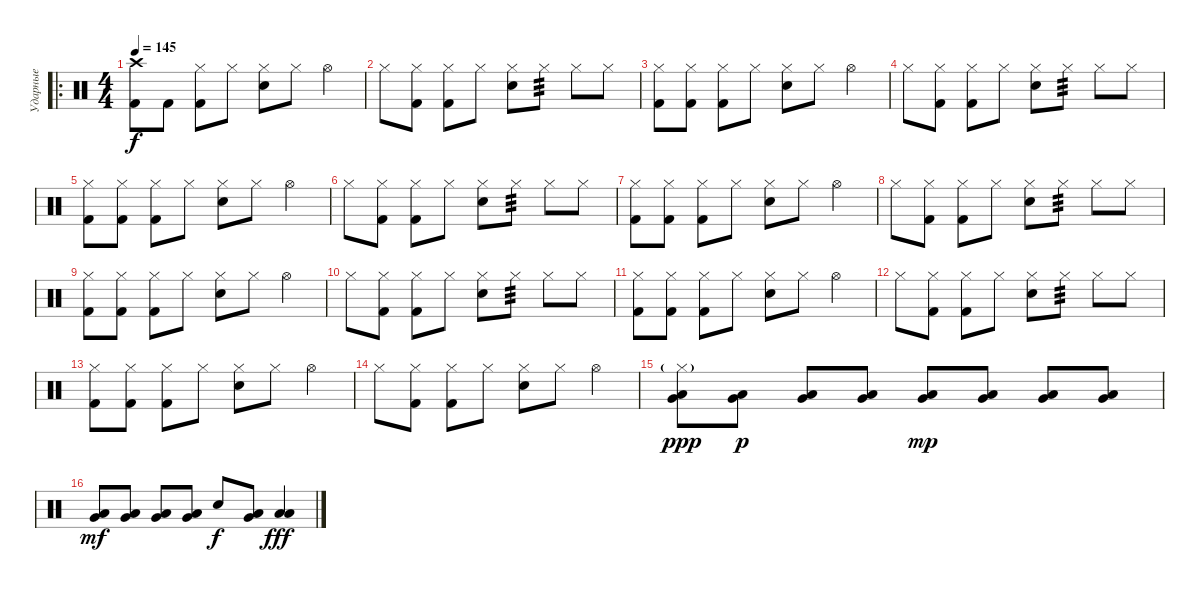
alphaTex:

\track ("Ударные" "Ударные") {instrument percussion}
\staff {score}
\articulation defaults
\ro
\ts (4 4)
\tempo 145
\clef neutral
\ks c
("Kick (hit) 2" "Crash high (hit)").8{dy f} "Kick (hit) 2".8 ("Kick (hit) 2" "Hi-Hat (closed)").8 "Hi-Hat (closed)".8 ("Snare (hit) 2" "Hi-Hat (closed)").8 "Hi-Hat (closed)".8 "Hi-Hat (open)".4 |
"Hi-Hat (closed)".8 ("Kick (hit) 2" "Hi-Hat (closed)").8 ("Kick (hit) 2" "Hi-Hat (closed)").8 "Hi-Hat (closed)".8 ("Snare (hit) 2" "Hi-Hat (closed)").8 "Hi-Hat (closed)".8{tp 3} "Hi-Hat (closed)".8 "Hi-Hat (closed)".8 |
("Kick (hit) 2" "Hi-Hat (closed)").8 ("Kick (hit) 2" "Hi-Hat (closed)").8 ("Kick (hit) 2" "Hi-Hat (closed)").8 "Hi-Hat (closed)".8 ("Snare (hit) 2" "Hi-Hat (closed)").8 "Hi-Hat (closed)".8 "Hi-Hat (open)".4 |
"Hi-Hat (closed)".8 ("Kick (hit) 2" "Hi-Hat (closed)").8 ("Kick (hit) 2" "Hi-Hat (closed)").8 "Hi-Hat (closed)".8 ("Snare (hit) 2" "Hi-Hat (closed)").8 "Hi-Hat (closed)".8{tp 3} "Hi-Hat (closed)".8 "Hi-Hat (closed)".8 |
("Kick (hit) 2" "Hi-Hat (closed)").8 ("Kick (hit) 2" "Hi-Hat (closed)").8 ("Kick (hit) 2" "Hi-Hat (closed)").8 "Hi-Hat (closed)".8 ("Snare (hit) 2" "Hi-Hat (closed)").8 "Hi-Hat (closed)".8 "Hi-Hat (open)".4 |
"Hi-Hat (closed)".8 ("Kick (hit) 2" "Hi-Hat (closed)").8 ("Kick (hit) 2" "Hi-Hat (closed)").8 "Hi-Hat (closed)".8 ("Snare (hit) 2" "Hi-Hat (closed)").8 "Hi-Hat (closed)".8{tp 3} "Hi-Hat (closed)".8 "Hi-Hat (closed)".8 |
("Kick (hit) 2" "Hi-Hat (closed)").8 ("Kick (hit) 2" "Hi-Hat (closed)").8 ("Kick (hit) 2" "Hi-Hat (closed)").8 "Hi-Hat (closed)".8 ("Snare (hit) 2" "Hi-Hat (closed)").8 "Hi-Hat (closed)".8 "Hi-Hat (open)".4 |
"Hi-Hat (closed)".8 ("Kick (hit) 2" "Hi-Hat (closed)").8 ("Kick (hit) 2" "Hi-Hat (closed)").8 "Hi-Hat (closed)".8 ("Snare (hit) 2" "Hi-Hat (closed)").8 "Hi-Hat (closed)".8{tp 3} "Hi-Hat (closed)".8 "Hi-Hat (closed)".8 |
("Kick (hit) 2" "Hi-Hat (closed)").8 ("Kick (hit) 2" "Hi-Hat (closed)").8 ("Kick (hit) 2" "Hi-Hat (closed)").8 "Hi-Hat (closed)".8 ("Snare (hit) 2" "Hi-Hat (closed)").8 "Hi-Hat (closed)".8 "Hi-Hat (open)".4 |
"Hi-Hat (closed)".8 ("Kick (hit) 2" "Hi-Hat (closed)").8 ("Kick (hit) 2" "Hi-Hat (closed)").8 "Hi-Hat (closed)".8 ("Snare (hit) 2" "Hi-Hat (closed)").8 "Hi-Hat (closed)".8{tp 3} "Hi-Hat (closed)".8 "Hi-Hat (closed)".8 |
("Kick (hit) 2" "Hi-Hat (closed)").8 ("Kick (hit) 2" "Hi-Hat (closed)").8 ("Kick (hit) 2" "Hi-Hat (closed)").8 "Hi-Hat (closed)".8 ("Snare (hit) 2" "Hi-Hat (closed)").8 "Hi-Hat (closed)".8 "Hi-Hat (open)".4 |
"Hi-Hat (closed)".8 ("Kick (hit) 2" "Hi-Hat (closed)").8 ("Kick (hit) 2" "Hi-Hat (closed)").8 "Hi-Hat (closed)".8 ("Snare (hit) 2" "Hi-Hat (closed)").8 "Hi-Hat (closed)".8{tp 3} "Hi-Hat (closed)".8 "Hi-Hat (closed)".8 |
("Kick (hit) 2" "Hi-Hat (closed)").8 ("Kick (hit) 2" "Hi-Hat (closed)").8 ("Kick (hit) 2" "Hi-Hat (closed)").8 "Hi-Hat (closed)".8 ("Snare (hit) 2" "Hi-Hat (closed)").8 "Hi-Hat (closed)".8 "Hi-Hat (open)".4 |
"Hi-Hat (closed)".8 ("Kick (hit) 2" "Hi-Hat (closed)").8 ("Kick (hit) 2" "Hi-Hat (closed)").8 "Hi-Hat (closed)".8 ("Snare (hit) 2" "Hi-Hat (closed)").8 "Hi-Hat (closed)".8 "Hi-Hat (open)".4 |
("Low Floor Tom (hit)" "Very Low Tom (hit)" "Hi-Hat (closed)"{g}).8{dy ppp} ("Low Floor Tom (hit)" "Very Low Tom (hit)").8{dy p} ("Low Floor Tom (hit)" "Very Low Tom (hit)").8 ("Low Floor Tom (hit)" "Very Low Tom (hit)").8 ("Low Floor Tom (hit)" "Very Low Tom (hit)").8{dy mp} ("Low Floor Tom (hit)" "Very Low Tom (hit)").8 ("Low Floor Tom (hit)" "Very Low Tom (hit)").8 ("Low Floor Tom (hit)" "Very Low Tom (hit)").8 |
("Low Floor Tom (hit)" "Very Low Tom (hit)").8{dy mf} ("Low Floor Tom (hit)" "Very Low Tom (hit)").8 ("Low Floor Tom (hit)" "Very Low Tom (hit)").8 ("Low Floor Tom (hit)" "Very Low Tom (hit)").8 "Electric Snare (hit)".8{dy f} ("Low Floor Tom (hit)" "Very Low Tom (hit)").8 ("Low Floor Tom (hit)" "Low Floor Tom (hit)").4{dy fff}
